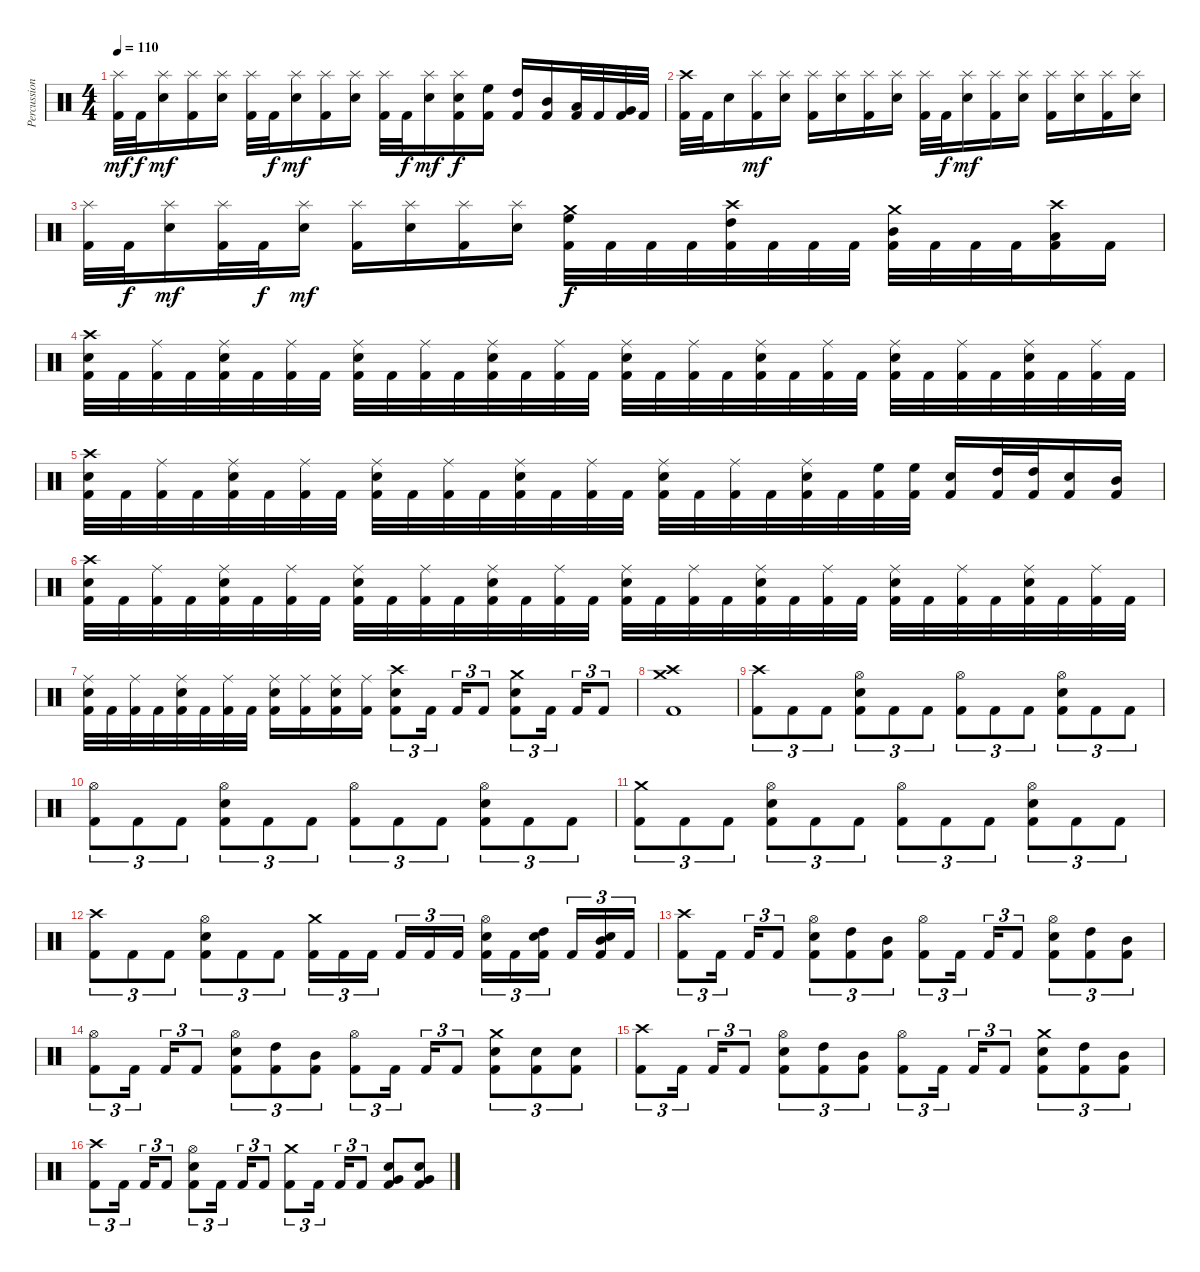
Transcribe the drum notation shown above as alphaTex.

\track ("Percussion" "Percussion") {instrument percussion}
\staff {score}
\articulation defaults
\ts (4 4)
\tempo 110
\clef neutral
\ks c
("Splash (hit)" "Kick (hit) 2").32{dy mf} "Kick (hit) 2".32{dy f} ("Splash (hit)" "Snare (hit) 2").16{dy mf} ("Splash (hit)" "Kick (hit) 2").16 ("Splash (hit)" "Snare (hit) 2").16 ("Splash (hit)" "Kick (hit) 2").32 "Kick (hit) 2".32{dy f} ("Splash (hit)" "Snare (hit) 2").16{dy mf} ("Splash (hit)" "Kick (hit) 2").16 ("Splash (hit)" "Snare (hit) 2").16 ("Splash (hit)" "Kick (hit) 2").32 "Kick (hit) 2".32{dy f} ("Splash (hit)" "Snare (hit) 2").16{dy mf} ("Splash (hit)" "Snare (hit) 2" "Kick (hit) 2").16{dy f} ("High Floor Tom (hit)" "Kick (hit) 2").16 ("High Tom (hit)" "Kick (hit) 2").16 ("Mid Tom (hit)" "Kick (hit) 2").16 ("Low Tom (hit)" "Kick (hit) 2").32 "Kick (hit) 2".32 ("Very Low Tom (hit)" "Kick (hit) 2").32 "Kick (hit) 2".32 |
("Crash high (hit)" "Kick (hit) 2").32 "Kick (hit) 2".32 "Snare (hit) 2".16 ("Splash (hit)" "Kick (hit) 2").16{dy mf} ("Splash (hit)" "Snare (hit) 2").16 ("Splash (hit)" "Kick (hit) 2").16 ("Splash (hit)" "Snare (hit) 2").16 ("Splash (hit)" "Kick (hit) 2").16 ("Splash (hit)" "Snare (hit) 2").16 ("Splash (hit)" "Kick (hit) 2").32 "Kick (hit) 2".32{dy f} ("Splash (hit)" "Snare (hit) 2").16{dy mf} ("Splash (hit)" "Kick (hit) 2").16 ("Splash (hit)" "Snare (hit) 2").16 ("Splash (hit)" "Kick (hit) 2").16 ("Splash (hit)" "Snare (hit) 2").16 ("Splash (hit)" "Kick (hit) 2").16 ("Splash (hit)" "Snare (hit) 2").16 |
("Splash (hit)" "Kick (hit) 2").32 "Kick (hit) 2".32{dy f} ("Splash (hit)" "Snare (hit) 2").16{dy mf} ("Splash (hit)" "Kick (hit) 2").32 "Kick (hit) 2".32{dy f} ("Splash (hit)" "Snare (hit) 2").16{dy mf} ("Splash (hit)" "Kick (hit) 2").16 ("Splash (hit)" "Snare (hit) 2").16 ("Splash (hit)" "Kick (hit) 2").16 ("Splash (hit)" "Snare (hit) 2").16 ("Crash medium (hit)" "High Floor Tom (hit)" "Kick (hit) 2").32{dy f} "Kick (hit) 2".32 "Kick (hit) 2".32 "Kick (hit) 2".32 ("Crash high (hit)" "High Tom (hit)" "Kick (hit) 2").32 "Kick (hit) 2".32 "Kick (hit) 2".32 "Kick (hit) 2".32 ("Crash medium (hit)" "Mid Tom (hit)" "Kick (hit) 2").32 "Kick (hit) 2".32 "Kick (hit) 2".32 "Kick (hit) 2".32 ("Crash high (hit)" "Low Tom (hit)" "Kick (hit) 2").16 "Kick (hit) 2".16 |
("Crash high (hit)" "Snare (hit) 2" "Kick (hit) 2").32 "Kick (hit) 2".32 ("Ride (middle)" "Kick (hit) 2").32 "Kick (hit) 2".32 ("Ride (middle)" "Snare (hit) 2" "Kick (hit) 2").32 "Kick (hit) 2".32 ("Ride (middle)" "Kick (hit) 2").32 "Kick (hit) 2".32 ("Ride (middle)" "Snare (hit) 2" "Kick (hit) 2").32 "Kick (hit) 2".32 ("Ride (middle)" "Kick (hit) 2").32 "Kick (hit) 2".32 ("Ride (middle)" "Snare (hit) 2" "Kick (hit) 2").32 "Kick (hit) 2".32 ("Ride (middle)" "Kick (hit) 2").32 "Kick (hit) 2".32 ("Ride (middle)" "Snare (hit) 2" "Kick (hit) 2").32 "Kick (hit) 2".32 ("Ride (middle)" "Kick (hit) 2").32 "Kick (hit) 2".32 ("Ride (middle)" "Snare (hit) 2" "Kick (hit) 2").32 "Kick (hit) 2".32 ("Ride (middle)" "Kick (hit) 2").32 "Kick (hit) 2".32 ("Ride (middle)" "Snare (hit) 2" "Kick (hit) 2").32 "Kick (hit) 2".32 ("Ride (middle)" "Kick (hit) 2").32 "Kick (hit) 2".32 ("Ride (middle)" "Snare (hit) 2" "Kick (hit) 2").32 "Kick (hit) 2".32 ("Ride (middle)" "Kick (hit) 2").32 "Kick (hit) 2".32 |
("Crash high (hit)" "Snare (hit) 2" "Kick (hit) 2").32 "Kick (hit) 2".32 ("Ride (middle)" "Kick (hit) 2").32 "Kick (hit) 2".32 ("Ride (middle)" "Snare (hit) 2" "Kick (hit) 2").32 "Kick (hit) 2".32 ("Ride (middle)" "Kick (hit) 2").32 "Kick (hit) 2".32 ("Ride (middle)" "Snare (hit) 2" "Kick (hit) 2").32 "Kick (hit) 2".32 ("Ride (middle)" "Kick (hit) 2").32 "Kick (hit) 2".32 ("Ride (middle)" "Snare (hit) 2" "Kick (hit) 2").32 "Kick (hit) 2".32 ("Ride (middle)" "Kick (hit) 2").32 "Kick (hit) 2".32 ("Ride (middle)" "Snare (hit) 2" "Kick (hit) 2").32 "Kick (hit) 2".32 ("Ride (middle)" "Kick (hit) 2").32 "Kick (hit) 2".32 ("Ride (middle)" "Snare (hit) 2" "Kick (hit) 2").32 "Kick (hit) 2".32 ("High Floor Tom (hit)" "Kick (hit) 2").32 ("High Floor Tom (hit)" "Kick (hit) 2").32 ("Snare (hit) 2" "Kick (hit) 2").16 ("High Tom (hit)" "Kick (hit) 2").32 ("High Tom (hit)" "Kick (hit) 2").32 ("Snare (hit) 2" "Kick (hit) 2").16 ("Mid Tom (hit)" "Kick (hit) 2").16 |
("Crash high (hit)" "Snare (hit) 2" "Kick (hit) 2").32 "Kick (hit) 2".32 ("Ride (middle)" "Kick (hit) 2").32 "Kick (hit) 2".32 ("Ride (middle)" "Snare (hit) 2" "Kick (hit) 2").32 "Kick (hit) 2".32 ("Ride (middle)" "Kick (hit) 2").32 "Kick (hit) 2".32 ("Ride (middle)" "Snare (hit) 2" "Kick (hit) 2").32 "Kick (hit) 2".32 ("Ride (middle)" "Kick (hit) 2").32 "Kick (hit) 2".32 ("Ride (middle)" "Snare (hit) 2" "Kick (hit) 2").32 "Kick (hit) 2".32 ("Ride (middle)" "Kick (hit) 2").32 "Kick (hit) 2".32 ("Ride (middle)" "Snare (hit) 2" "Kick (hit) 2").32 "Kick (hit) 2".32 ("Ride (middle)" "Kick (hit) 2").32 "Kick (hit) 2".32 ("Ride (middle)" "Snare (hit) 2" "Kick (hit) 2").32 "Kick (hit) 2".32 ("Ride (middle)" "Kick (hit) 2").32 "Kick (hit) 2".32 ("Ride (middle)" "Snare (hit) 2" "Kick (hit) 2").32 "Kick (hit) 2".32 ("Ride (middle)" "Kick (hit) 2").32 "Kick (hit) 2".32 ("Ride (middle)" "Snare (hit) 2" "Kick (hit) 2").32 "Kick (hit) 2".32 ("Ride (middle)" "Kick (hit) 2").32 "Kick (hit) 2".32 |
("Ride (middle)" "Snare (hit) 2" "Kick (hit) 2").32 "Kick (hit) 2".32 ("Ride (middle)" "Kick (hit) 2").32 "Kick (hit) 2".32 ("Ride (middle)" "Snare (hit) 2" "Kick (hit) 2").32 "Kick (hit) 2".32 ("Ride (middle)" "Kick (hit) 2").32 "Kick (hit) 2".32 ("Ride (middle)" "Snare (hit) 2" "Kick (hit) 2").16 ("Ride (middle)" "Kick (hit) 2").16 ("Ride (middle)" "Snare (hit) 2" "Kick (hit) 2").16 ("Ride (middle)" "Kick (hit) 2").16 ("Crash high (hit)" "Snare (hit) 2" "Kick (hit) 2").8{tu (3 2)} "Kick (hit) 2".16{tu (3 2)} "Kick (hit) 2".16{tu (3 2)} "Kick (hit) 2".8{tu (3 2)} ("Crash medium (hit)" "Snare (hit) 2" "Kick (hit) 2").8{tu (3 2)} "Kick (hit) 2".16{tu (3 2)} "Kick (hit) 2".16{tu (3 2)} "Kick (hit) 2".8{tu (3 2)} |
("Crash medium (hit)" "Crash high (hit)" "Kick (hit) 2").1 |
\section ("" "")
("Crash high (hit)" "Kick (hit) 2").8{tu (3 2)} "Kick (hit) 2".8{tu (3 2)} "Kick (hit) 2".8{tu (3 2)} ("Hi-Hat (open)" "Snare (hit) 2" "Kick (hit) 2").8{tu (3 2)} "Kick (hit) 2".8{tu (3 2)} "Kick (hit) 2".8{tu (3 2)} ("Hi-Hat (open)" "Kick (hit) 2").8{tu (3 2)} "Kick (hit) 2".8{tu (3 2)} "Kick (hit) 2".8{tu (3 2)} ("Hi-Hat (open)" "Snare (hit) 2" "Kick (hit) 2").8{tu (3 2)} "Kick (hit) 2".8{tu (3 2)} "Kick (hit) 2".8{tu (3 2)} |
("Hi-Hat (open)" "Kick (hit) 2").8{tu (3 2)} "Kick (hit) 2".8{tu (3 2)} "Kick (hit) 2".8{tu (3 2)} ("Hi-Hat (open)" "Snare (hit) 2" "Kick (hit) 2").8{tu (3 2)} "Kick (hit) 2".8{tu (3 2)} "Kick (hit) 2".8{tu (3 2)} ("Hi-Hat (open)" "Kick (hit) 2").8{tu (3 2)} "Kick (hit) 2".8{tu (3 2)} "Kick (hit) 2".8{tu (3 2)} ("Hi-Hat (open)" "Snare (hit) 2" "Kick (hit) 2").8{tu (3 2)} "Kick (hit) 2".8{tu (3 2)} "Kick (hit) 2".8{tu (3 2)} |
("Crash medium (hit)" "Kick (hit) 2").8{tu (3 2)} "Kick (hit) 2".8{tu (3 2)} "Kick (hit) 2".8{tu (3 2)} ("Hi-Hat (open)" "Snare (hit) 2" "Kick (hit) 2").8{tu (3 2)} "Kick (hit) 2".8{tu (3 2)} "Kick (hit) 2".8{tu (3 2)} ("Hi-Hat (open)" "Kick (hit) 2").8{tu (3 2)} "Kick (hit) 2".8{tu (3 2)} "Kick (hit) 2".8{tu (3 2)} ("Hi-Hat (open)" "Snare (hit) 2" "Kick (hit) 2").8{tu (3 2)} "Kick (hit) 2".8{tu (3 2)} "Kick (hit) 2".8{tu (3 2)} |
("Crash high (hit)" "Kick (hit) 2").8{tu (3 2)} "Kick (hit) 2".8{tu (3 2)} "Kick (hit) 2".8{tu (3 2)} ("Hi-Hat (open)" "Snare (hit) 2" "Kick (hit) 2").8{tu (3 2)} "Kick (hit) 2".8{tu (3 2)} "Kick (hit) 2".8{tu (3 2)} ("Crash medium (hit)" "Kick (hit) 2").16{tu (3 2)} "Kick (hit) 2".16{tu (3 2)} "Kick (hit) 2".16{tu (3 2)} "Kick (hit) 2".16{tu (3 2)} "Kick (hit) 2".16{tu (3 2)} "Kick (hit) 2".16{tu (3 2)} ("Hi-Hat (open)" "Snare (hit) 2" "Kick (hit) 2").16{tu (3 2)} "Kick (hit) 2".16{tu (3 2)} ("High Tom (hit)" "Snare (hit) 2" "Kick (hit) 2").16{tu (3 2)} "Kick (hit) 2".16{tu (3 2)} ("Mid Tom (hit)" "Snare (hit) 2" "Kick (hit) 2").16{tu (3 2)} "Kick (hit) 2".16{tu (3 2)} |
("Crash high (hit)" "Kick (hit) 2").8{tu (3 2)} "Kick (hit) 2".16{tu (3 2)} "Kick (hit) 2".16{tu (3 2)} "Kick (hit) 2".8{tu (3 2)} ("Hi-Hat (open)" "Snare (hit) 2" "Kick (hit) 2").8{tu (3 2)} ("High Tom (hit)" "Kick (hit) 2").8{tu (3 2)} ("Mid Tom (hit)" "Kick (hit) 2").8{tu (3 2)} ("Hi-Hat (open)" "Kick (hit) 2").8{tu (3 2)} "Kick (hit) 2".16{tu (3 2)} "Kick (hit) 2".16{tu (3 2)} "Kick (hit) 2".8{tu (3 2)} ("Hi-Hat (open)" "Snare (hit) 2" "Kick (hit) 2").8{tu (3 2)} ("High Tom (hit)" "Kick (hit) 2").8{tu (3 2)} ("Mid Tom (hit)" "Kick (hit) 2").8{tu (3 2)} |
("Hi-Hat (open)" "Kick (hit) 2").8{tu (3 2)} "Kick (hit) 2".16{tu (3 2)} "Kick (hit) 2".16{tu (3 2)} "Kick (hit) 2".8{tu (3 2)} ("Hi-Hat (open)" "Snare (hit) 2" "Kick (hit) 2").8{tu (3 2)} ("High Tom (hit)" "Kick (hit) 2").8{tu (3 2)} ("Mid Tom (hit)" "Kick (hit) 2").8{tu (3 2)} ("Hi-Hat (open)" "Kick (hit) 2").8{tu (3 2)} "Kick (hit) 2".16{tu (3 2)} "Kick (hit) 2".16{tu (3 2)} "Kick (hit) 2".8{tu (3 2)} ("Crash medium (hit)" "Snare (hit) 2" "Kick (hit) 2").8{tu (3 2)} ("Snare (hit) 2" "Kick (hit) 2").8{tu (3 2)} ("Snare (hit) 2" "Kick (hit) 2").8{tu (3 2)} |
("Crash high (hit)" "Kick (hit) 2").8{tu (3 2)} "Kick (hit) 2".16{tu (3 2)} "Kick (hit) 2".16{tu (3 2)} "Kick (hit) 2".8{tu (3 2)} ("Hi-Hat (open)" "Snare (hit) 2" "Kick (hit) 2").8{tu (3 2)} ("High Tom (hit)" "Kick (hit) 2").8{tu (3 2)} ("Mid Tom (hit)" "Kick (hit) 2").8{tu (3 2)} ("Hi-Hat (open)" "Kick (hit) 2").8{tu (3 2)} "Kick (hit) 2".16{tu (3 2)} "Kick (hit) 2".16{tu (3 2)} "Kick (hit) 2".8{tu (3 2)} ("Crash medium (hit)" "Snare (hit) 2" "Kick (hit) 2").8{tu (3 2)} ("High Tom (hit)" "Kick (hit) 2").8{tu (3 2)} ("Mid Tom (hit)" "Kick (hit) 2").8{tu (3 2)} |
("Crash high (hit)" "Kick (hit) 2").8{tu (3 2)} "Kick (hit) 2".16{tu (3 2)} "Kick (hit) 2".16{tu (3 2)} "Kick (hit) 2".8{tu (3 2)} ("Hi-Hat (open)" "Snare (hit) 2" "Kick (hit) 2").8{tu (3 2)} "Kick (hit) 2".16{tu (3 2)} "Kick (hit) 2".16{tu (3 2)} "Kick (hit) 2".8{tu (3 2)} ("Crash medium (hit)" "Kick (hit) 2").8{tu (3 2)} "Kick (hit) 2".16{tu (3 2)} "Kick (hit) 2".16{tu (3 2)} "Kick (hit) 2".8{tu (3 2)} ("Very Low Tom (hit)" "Snare (hit) 2" "Kick (hit) 2").8 ("Very Low Tom (hit)" "Snare (hit) 2" "Kick (hit) 2").8
